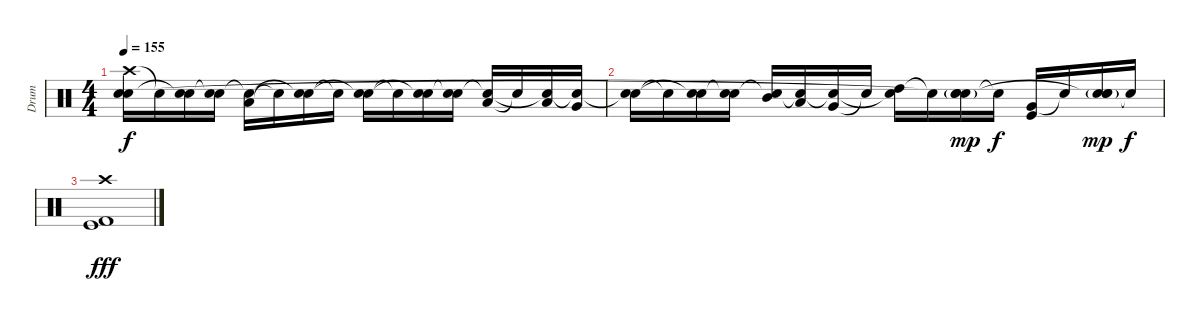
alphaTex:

\track ("Drum" "Drum") {instrument percussion}
\staff {score}
\articulation defaults
\ts (4 4)
\tempo 155
\clef neutral
\ks c
("Crash high (hit)" "Electric Snare (hit)" "Snare (hit)"{t}).16{dy f} "Snare (hit)"{t}.16 ("Electric Snare (hit)" "Snare (hit)"{t}).16 ("Electric Snare (hit)" "Snare (hit)"{t}).16 ("Low Tom (hit)" "Snare (hit)"{t}).16 "Snare (hit)"{t}.16 ("Electric Snare (hit)" "Snare (hit)"{t}).16 "Snare (hit)"{t}.16 ("Electric Snare (hit)" "Snare (hit)"{t}).16 "Snare (hit)"{t}.16 ("Electric Snare (hit)" "Snare (hit)"{t}).16 ("Electric Snare (hit)" "Snare (hit)"{t}).16 ("Low Tom (hit)" "Snare (hit)"{t}).16 "Snare (hit)"{t}.16 ("Low Tom (hit)" "Snare (hit)"{t}).16 ("Very Low Tom (hit)" "Snare (hit)"{t}).16 |
("Electric Snare (hit)" "Snare (hit)"{t}).16 "Snare (hit)"{t}.16 ("Electric Snare (hit)" "Snare (hit)"{t}).16 ("Electric Snare (hit)" "Snare (hit)"{t}).16 ("Mid Tom (hit)" "Snare (hit)"{t}).16 ("Low Tom (hit)" "Snare (hit)"{t}).16 ("Very Low Tom (hit)" "Snare (hit)"{t}).16 "Snare (hit)"{t}.16 ("High Tom (hit)" "Snare (hit)"{t}).16 "Snare (hit)"{t}.16 ("Electric Snare (hit)"{g} "Electric Snare (hit)" "Snare (hit)"{t}).16{bd 480 dy mp} "Snare (hit)"{t}.16{dy f} ("Very Low Tom (hit)" "Kick (hit)").16 "Snare (hit)"{t}.16 ("Electric Snare (hit)"{g} "Electric Snare (hit)" "Snare (hit)"{t}).16{bd 480 dy mp} "Snare (hit)"{t}.16{dy f} |
("Crash high (hit)" "Kick (hit) 2" "Kick (hit)").1{dy fff}
